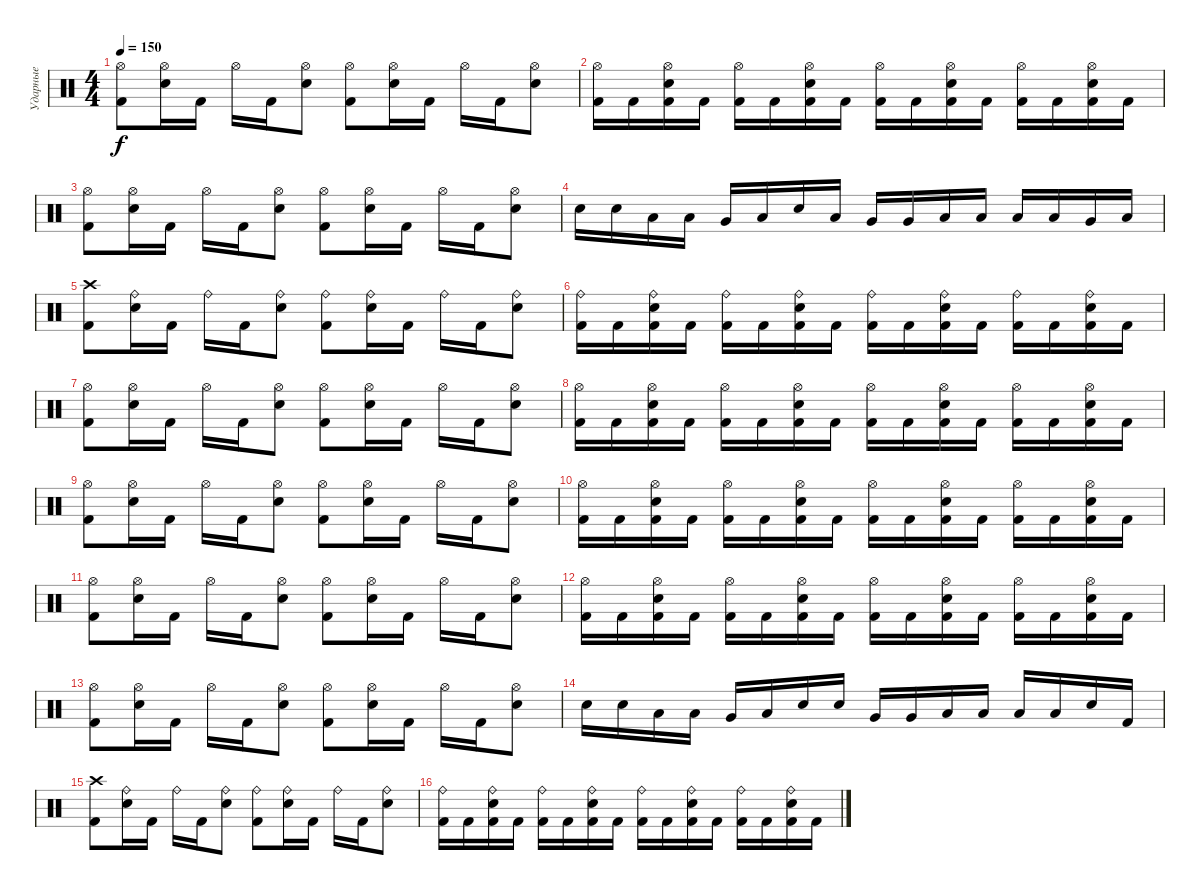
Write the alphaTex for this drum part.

\track ("Ударные" "Ударные") {instrument percussion}
\staff {score}
\articulation defaults
\ts (4 4)
\tempo 150
\clef neutral
\ks c
("Hi-Hat (open)" "Kick (hit) 2").8{dy f} ("Hi-Hat (open)" "Electric Snare (hit)").16 "Kick (hit) 2".16 "Hi-Hat (open)".16 "Kick (hit) 2".16 ("Hi-Hat (open)" "Electric Snare (hit)").8 ("Hi-Hat (open)" "Kick (hit) 2").8 ("Hi-Hat (open)" "Electric Snare (hit)").16 "Kick (hit) 2".16 "Hi-Hat (open)".16 "Kick (hit) 2".16 ("Hi-Hat (open)" "Electric Snare (hit)").8 |
("Hi-Hat (open)" "Kick (hit) 2").16 "Kick (hit) 2".16 ("Hi-Hat (open)" "Kick (hit) 2" "Electric Snare (hit)").16 "Kick (hit) 2".16 ("Hi-Hat (open)" "Kick (hit) 2").16 "Kick (hit) 2".16 ("Hi-Hat (open)" "Kick (hit) 2" "Electric Snare (hit)").16 "Kick (hit) 2".16 ("Hi-Hat (open)" "Kick (hit) 2").16 "Kick (hit) 2".16 ("Hi-Hat (open)" "Kick (hit) 2" "Electric Snare (hit)").16 "Kick (hit) 2".16 ("Hi-Hat (open)" "Kick (hit) 2").16 "Kick (hit) 2".16 ("Hi-Hat (open)" "Kick (hit) 2" "Electric Snare (hit)").16 "Kick (hit) 2".16 |
("Hi-Hat (open)" "Kick (hit) 2").8 ("Hi-Hat (open)" "Electric Snare (hit)").16 "Kick (hit) 2".16 "Hi-Hat (open)".16 "Kick (hit) 2".16 ("Hi-Hat (open)" "Electric Snare (hit)").8 ("Hi-Hat (open)" "Kick (hit) 2").8 ("Hi-Hat (open)" "Electric Snare (hit)").16 "Kick (hit) 2".16 "Hi-Hat (open)".16 "Kick (hit) 2".16 ("Hi-Hat (open)" "Electric Snare (hit)").8 |
"Electric Snare (hit)".16 "Electric Snare (hit)".16 "Low Tom (hit)".16 "Low Tom (hit)".16 "Very Low Tom (hit)".16 "Low Floor Tom (hit)".16 "Electric Snare (hit)".16 "Low Floor Tom (hit)".16 "Very Low Tom (hit)".16 "Very Low Tom (hit)".16 "Low Floor Tom (hit)".16 "Low Floor Tom (hit)".16 "Low Tom (hit)".16 "Low Tom (hit)".16 "Very Low Tom (hit)".16 "Low Floor Tom (hit)".16 |
("Crash high (hit)" "Kick (hit) 2").8 ("Ride (bell)" "Electric Snare (hit)").16 "Kick (hit) 2".16 "Ride (bell)".16 "Kick (hit) 2".16 ("Ride (bell)" "Electric Snare (hit)").8 ("Ride (bell)" "Kick (hit) 2").8 ("Ride (bell)" "Electric Snare (hit)").16 "Kick (hit) 2".16 "Ride (bell)".16 "Kick (hit) 2".16 ("Ride (bell)" "Electric Snare (hit)").8 |
("Ride (bell)" "Kick (hit) 2").16 "Kick (hit) 2".16 ("Ride (bell)" "Kick (hit) 2" "Electric Snare (hit)").16 "Kick (hit) 2".16 ("Ride (bell)" "Kick (hit) 2").16 "Kick (hit) 2".16 ("Ride (bell)" "Kick (hit) 2" "Electric Snare (hit)").16 "Kick (hit) 2".16 ("Ride (bell)" "Kick (hit) 2").16 "Kick (hit) 2".16 ("Ride (bell)" "Kick (hit) 2" "Electric Snare (hit)").16 "Kick (hit) 2".16 ("Ride (bell)" "Kick (hit) 2").16 "Kick (hit) 2".16 ("Ride (bell)" "Kick (hit) 2" "Electric Snare (hit)").16 "Kick (hit) 2".16 |
("Hi-Hat (open)" "Kick (hit) 2").8 ("Hi-Hat (open)" "Electric Snare (hit)").16 "Kick (hit) 2".16 "Hi-Hat (open)".16 "Kick (hit) 2".16 ("Hi-Hat (open)" "Electric Snare (hit)").8 ("Hi-Hat (open)" "Kick (hit) 2").8 ("Hi-Hat (open)" "Electric Snare (hit)").16 "Kick (hit) 2".16 "Hi-Hat (open)".16 "Kick (hit) 2".16 ("Hi-Hat (open)" "Electric Snare (hit)").8 |
("Hi-Hat (open)" "Kick (hit) 2").16 "Kick (hit) 2".16 ("Hi-Hat (open)" "Kick (hit) 2" "Electric Snare (hit)").16 "Kick (hit) 2".16 ("Hi-Hat (open)" "Kick (hit) 2").16 "Kick (hit) 2".16 ("Hi-Hat (open)" "Kick (hit) 2" "Electric Snare (hit)").16 "Kick (hit) 2".16 ("Hi-Hat (open)" "Kick (hit) 2").16 "Kick (hit) 2".16 ("Hi-Hat (open)" "Kick (hit) 2" "Electric Snare (hit)").16 "Kick (hit) 2".16 ("Hi-Hat (open)" "Kick (hit) 2").16 "Kick (hit) 2".16 ("Hi-Hat (open)" "Kick (hit) 2" "Electric Snare (hit)").16 "Kick (hit) 2".16 |
("Hi-Hat (open)" "Kick (hit) 2").8 ("Hi-Hat (open)" "Electric Snare (hit)").16 "Kick (hit) 2".16 "Hi-Hat (open)".16 "Kick (hit) 2".16 ("Hi-Hat (open)" "Electric Snare (hit)").8 ("Hi-Hat (open)" "Kick (hit) 2").8 ("Hi-Hat (open)" "Electric Snare (hit)").16 "Kick (hit) 2".16 "Hi-Hat (open)".16 "Kick (hit) 2".16 ("Hi-Hat (open)" "Electric Snare (hit)").8 |
("Hi-Hat (open)" "Kick (hit) 2").16 "Kick (hit) 2".16 ("Hi-Hat (open)" "Kick (hit) 2" "Electric Snare (hit)").16 "Kick (hit) 2".16 ("Hi-Hat (open)" "Kick (hit) 2").16 "Kick (hit) 2".16 ("Hi-Hat (open)" "Kick (hit) 2" "Electric Snare (hit)").16 "Kick (hit) 2".16 ("Hi-Hat (open)" "Kick (hit) 2").16 "Kick (hit) 2".16 ("Hi-Hat (open)" "Kick (hit) 2" "Electric Snare (hit)").16 "Kick (hit) 2".16 ("Hi-Hat (open)" "Kick (hit) 2").16 "Kick (hit) 2".16 ("Hi-Hat (open)" "Kick (hit) 2" "Electric Snare (hit)").16 "Kick (hit) 2".16 |
("Hi-Hat (open)" "Kick (hit) 2").8 ("Hi-Hat (open)" "Electric Snare (hit)").16 "Kick (hit) 2".16 "Hi-Hat (open)".16 "Kick (hit) 2".16 ("Hi-Hat (open)" "Electric Snare (hit)").8 ("Hi-Hat (open)" "Kick (hit) 2").8 ("Hi-Hat (open)" "Electric Snare (hit)").16 "Kick (hit) 2".16 "Hi-Hat (open)".16 "Kick (hit) 2".16 ("Hi-Hat (open)" "Electric Snare (hit)").8 |
("Hi-Hat (open)" "Kick (hit) 2").16 "Kick (hit) 2".16 ("Hi-Hat (open)" "Kick (hit) 2" "Electric Snare (hit)").16 "Kick (hit) 2".16 ("Hi-Hat (open)" "Kick (hit) 2").16 "Kick (hit) 2".16 ("Hi-Hat (open)" "Kick (hit) 2" "Electric Snare (hit)").16 "Kick (hit) 2".16 ("Hi-Hat (open)" "Kick (hit) 2").16 "Kick (hit) 2".16 ("Hi-Hat (open)" "Kick (hit) 2" "Electric Snare (hit)").16 "Kick (hit) 2".16 ("Hi-Hat (open)" "Kick (hit) 2").16 "Kick (hit) 2".16 ("Hi-Hat (open)" "Kick (hit) 2" "Electric Snare (hit)").16 "Kick (hit) 2".16 |
("Hi-Hat (open)" "Kick (hit) 2").8 ("Hi-Hat (open)" "Electric Snare (hit)").16 "Kick (hit) 2".16 "Hi-Hat (open)".16 "Kick (hit) 2".16 ("Hi-Hat (open)" "Electric Snare (hit)").8 ("Hi-Hat (open)" "Kick (hit) 2").8 ("Hi-Hat (open)" "Electric Snare (hit)").16 "Kick (hit) 2".16 "Hi-Hat (open)".16 "Kick (hit) 2".16 ("Hi-Hat (open)" "Electric Snare (hit)").8 |
"Electric Snare (hit)".16 "Electric Snare (hit)".16 "Low Tom (hit)".16 "Low Tom (hit)".16 "Very Low Tom (hit)".16 "Low Floor Tom (hit)".16 "Electric Snare (hit)".16 "Electric Snare (hit)".16 "Very Low Tom (hit)".16 "Very Low Tom (hit)".16 "Low Floor Tom (hit)".16 "Low Floor Tom (hit)".16 "Low Tom (hit)".16 "Low Tom (hit)".16 "Electric Snare (hit)".16 "Kick (hit) 2".16 |
("Crash high (hit)" "Kick (hit) 2").8 ("Ride (bell)" "Electric Snare (hit)").16 "Kick (hit) 2".16 "Ride (bell)".16 "Kick (hit) 2".16 ("Ride (bell)" "Electric Snare (hit)").8 ("Ride (bell)" "Kick (hit) 2").8 ("Ride (bell)" "Electric Snare (hit)").16 "Kick (hit) 2".16 "Ride (bell)".16 "Kick (hit) 2".16 ("Ride (bell)" "Electric Snare (hit)").8 |
("Ride (bell)" "Kick (hit) 2").16 "Kick (hit) 2".16 ("Ride (bell)" "Kick (hit) 2" "Electric Snare (hit)").16 "Kick (hit) 2".16 ("Ride (bell)" "Kick (hit) 2").16 "Kick (hit) 2".16 ("Ride (bell)" "Kick (hit) 2" "Electric Snare (hit)").16 "Kick (hit) 2".16 ("Ride (bell)" "Kick (hit) 2").16 "Kick (hit) 2".16 ("Ride (bell)" "Kick (hit) 2" "Electric Snare (hit)").16 "Kick (hit) 2".16 ("Ride (bell)" "Kick (hit) 2").16 "Kick (hit) 2".16 ("Ride (bell)" "Kick (hit) 2" "Electric Snare (hit)").16 "Kick (hit) 2".16
